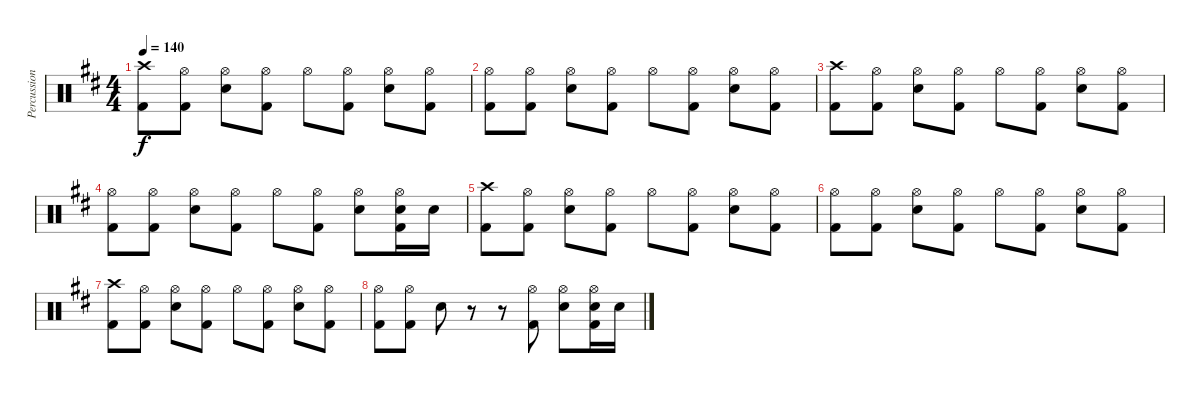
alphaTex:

\track ("Percussion" "Percussion") {instrument percussion}
\staff {score}
\articulation defaults
\ts (4 4)
\tempo 140
\clef neutral
\ks d
("Crash high (hit)" "Kick (hit) 2").8{dy f} ("Hi-Hat (open)" "Kick (hit) 2").8 ("Hi-Hat (open)" "Electric Snare (hit)").8 ("Hi-Hat (open)" "Kick (hit) 2").8 "Hi-Hat (open)".8 ("Hi-Hat (open)" "Kick (hit) 2").8 ("Hi-Hat (open)" "Electric Snare (hit)").8 ("Hi-Hat (open)" "Kick (hit) 2").8 |
("Hi-Hat (open)" "Kick (hit) 2").8 ("Hi-Hat (open)" "Kick (hit) 2").8 ("Hi-Hat (open)" "Electric Snare (hit)").8 ("Hi-Hat (open)" "Kick (hit) 2").8 "Hi-Hat (open)".8 ("Hi-Hat (open)" "Kick (hit) 2").8 ("Hi-Hat (open)" "Electric Snare (hit)").8 ("Hi-Hat (open)" "Kick (hit) 2").8 |
("Crash high (hit)" "Kick (hit) 2").8 ("Hi-Hat (open)" "Kick (hit) 2").8 ("Hi-Hat (open)" "Electric Snare (hit)").8 ("Hi-Hat (open)" "Kick (hit) 2").8 "Hi-Hat (open)".8 ("Hi-Hat (open)" "Kick (hit) 2").8 ("Hi-Hat (open)" "Electric Snare (hit)").8 ("Hi-Hat (open)" "Kick (hit) 2").8 |
("Hi-Hat (open)" "Kick (hit) 2").8 ("Hi-Hat (open)" "Kick (hit) 2").8 ("Hi-Hat (open)" "Electric Snare (hit)").8 ("Hi-Hat (open)" "Kick (hit) 2").8 "Hi-Hat (open)".8 ("Hi-Hat (open)" "Kick (hit) 2").8 ("Hi-Hat (open)" "Electric Snare (hit)").8 ("Hi-Hat (open)" "Electric Snare (hit)" "Kick (hit) 2").16 "Electric Snare (hit)".16 |
("Crash high (hit)" "Kick (hit) 2").8 ("Hi-Hat (open)" "Kick (hit) 2").8 ("Hi-Hat (open)" "Electric Snare (hit)").8 ("Hi-Hat (open)" "Kick (hit) 2").8 "Hi-Hat (open)".8 ("Hi-Hat (open)" "Kick (hit) 2").8 ("Hi-Hat (open)" "Electric Snare (hit)").8 ("Hi-Hat (open)" "Kick (hit) 2").8 |
("Hi-Hat (open)" "Kick (hit) 2").8 ("Hi-Hat (open)" "Kick (hit) 2").8 ("Hi-Hat (open)" "Electric Snare (hit)").8 ("Hi-Hat (open)" "Kick (hit) 2").8 "Hi-Hat (open)".8 ("Hi-Hat (open)" "Kick (hit) 2").8 ("Hi-Hat (open)" "Electric Snare (hit)").8 ("Hi-Hat (open)" "Kick (hit) 2").8 |
("Crash high (hit)" "Kick (hit) 2").8 ("Hi-Hat (open)" "Kick (hit) 2").8 ("Hi-Hat (open)" "Electric Snare (hit)").8 ("Hi-Hat (open)" "Kick (hit) 2").8 "Hi-Hat (open)".8 ("Hi-Hat (open)" "Kick (hit) 2").8 ("Hi-Hat (open)" "Electric Snare (hit)").8 ("Hi-Hat (open)" "Kick (hit) 2").8 |
("Hi-Hat (open)" "Kick (hit) 2").8 ("Hi-Hat (open)" "Kick (hit) 2").8 "Electric Snare (hit)".8 r.8 r.8 ("Hi-Hat (open)" "Kick (hit) 2").8 ("Hi-Hat (open)" "Electric Snare (hit)").8 ("Hi-Hat (open)" "Electric Snare (hit)" "Kick (hit) 2").16 "Electric Snare (hit)".16
